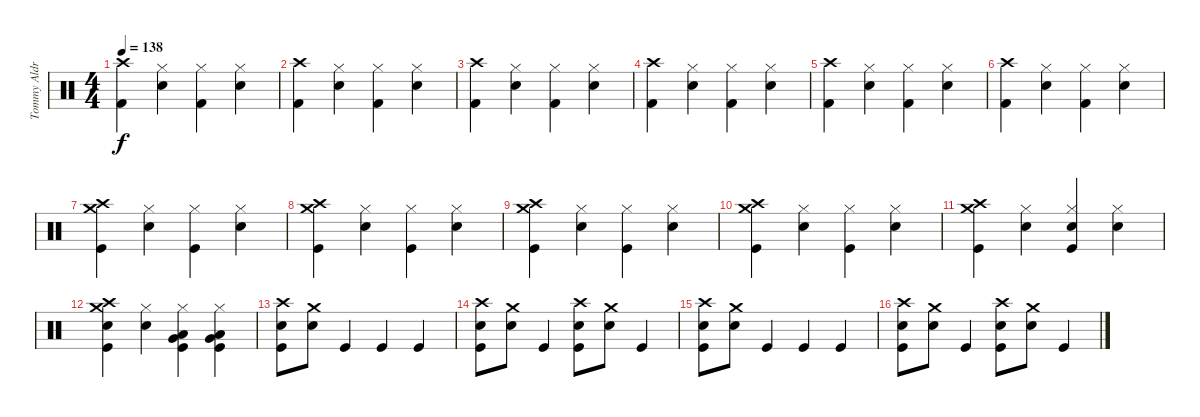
\track ("Tommy Aldridge" "Tommy Aldr") {instrument percussion}
\staff {score}
\articulation defaults
\ts (4 4)
\tempo 138
\clef neutral
\ks c
("Crash high (hit)" "Kick (hit) 2").4{dy f} ("Snare (hit) 2" "Hi-Hat (closed)").4 ("Hi-Hat (closed)" "Kick (hit) 2").4 ("Snare (hit) 2" "Hi-Hat (closed)").4 |
("Crash high (hit)" "Kick (hit) 2").4 ("Snare (hit) 2" "Hi-Hat (closed)").4 ("Hi-Hat (closed)" "Kick (hit) 2").4 ("Snare (hit) 2" "Hi-Hat (closed)").4 |
("Crash high (hit)" "Kick (hit) 2").4 ("Snare (hit) 2" "Hi-Hat (closed)").4 ("Hi-Hat (closed)" "Kick (hit) 2").4 ("Snare (hit) 2" "Hi-Hat (closed)").4 |
("Crash high (hit)" "Kick (hit) 2").4 ("Snare (hit) 2" "Hi-Hat (closed)").4 ("Hi-Hat (closed)" "Kick (hit) 2").4 ("Snare (hit) 2" "Hi-Hat (closed)").4 |
("Crash high (hit)" "Kick (hit) 2").4 ("Snare (hit) 2" "Hi-Hat (closed)").4 ("Hi-Hat (closed)" "Kick (hit) 2").4 ("Snare (hit) 2" "Hi-Hat (closed)").4 |
("Crash high (hit)" "Kick (hit) 2").4 ("Snare (hit) 2" "Hi-Hat (closed)").4 ("Hi-Hat (closed)" "Kick (hit) 2").4 ("Snare (hit) 2" "Hi-Hat (closed)").4 |
("Crash high (hit)" "Crash medium (hit)" "Kick (hit)").4 ("Hi-Hat (closed)" "Snare (hit) 2").4 ("Hi-Hat (closed)" "Kick (hit)").4 ("Hi-Hat (closed)" "Snare (hit) 2").4 |
("Crash high (hit)" "Crash medium (hit)" "Kick (hit)").4 ("Hi-Hat (closed)" "Snare (hit) 2").4 ("Hi-Hat (closed)" "Kick (hit)").4 ("Hi-Hat (closed)" "Snare (hit) 2").4 |
("Crash high (hit)" "Crash medium (hit)" "Kick (hit)").4 ("Hi-Hat (closed)" "Snare (hit) 2").4 ("Hi-Hat (closed)" "Kick (hit)").4 ("Hi-Hat (closed)" "Snare (hit) 2").4 |
("Crash high (hit)" "Crash medium (hit)" "Kick (hit)").4 ("Hi-Hat (closed)" "Snare (hit) 2").4 ("Hi-Hat (closed)" "Kick (hit)").4 ("Hi-Hat (closed)" "Snare (hit) 2").4 |
("Crash high (hit)" "Crash medium (hit)" "Kick (hit)").4 ("Hi-Hat (closed)" "Snare (hit) 2").4 ("Hi-Hat (closed)" "Snare (hit) 2" "Kick (hit)").4 ("Hi-Hat (closed)" "Snare (hit) 2").4 |
("Crash high (hit)" "Snare (hit) 2" "Crash medium (hit)" "Kick (hit)").4 ("Hi-Hat (closed)" "Snare (hit) 2").4 ("Hi-Hat (closed)" "Low Tom (hit)" "Very Low Tom (hit)" "Kick (hit)").4 ("Hi-Hat (closed)" "Very Low Tom (hit)" "Low Floor Tom (hit)" "Kick (hit)").4 |
("Crash high (hit)" "Snare (hit) 2" "Kick (hit)").8 ("Crash medium (hit)" "Snare (hit) 2").8 "Kick (hit)".4 "Kick (hit)".4 "Kick (hit)".4 |
("Crash high (hit)" "Snare (hit) 2" "Kick (hit)").8 ("Crash medium (hit)" "Snare (hit) 2").8 "Kick (hit)".4 ("Crash high (hit)" "Snare (hit) 2" "Kick (hit)").8 ("Crash medium (hit)" "Snare (hit) 2").8 "Kick (hit)".4 |
("Crash high (hit)" "Snare (hit) 2" "Kick (hit)").8 ("Crash medium (hit)" "Snare (hit) 2").8 "Kick (hit)".4 "Kick (hit)".4 "Kick (hit)".4 |
("Crash high (hit)" "Snare (hit) 2" "Kick (hit)").8 ("Crash medium (hit)" "Snare (hit) 2").8 "Kick (hit)".4 ("Crash high (hit)" "Snare (hit) 2" "Kick (hit)").8 ("Crash medium (hit)" "Snare (hit) 2").8 "Kick (hit)".4
